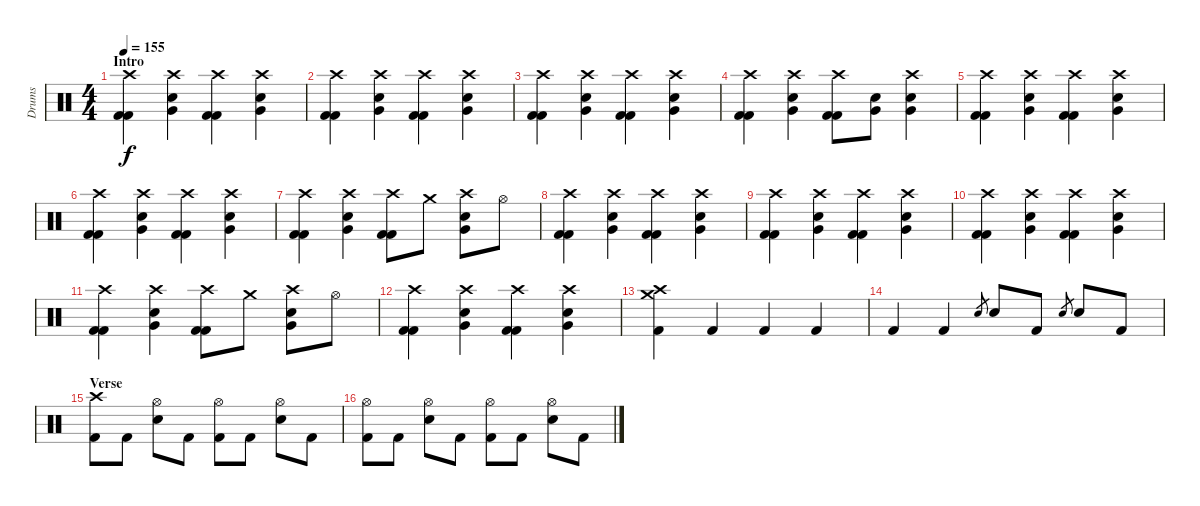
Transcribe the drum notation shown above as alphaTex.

\track ("Drums" "Drums") {instrument percussion}
\staff {score}
\articulation defaults
\ts (4 4)
\section ("" "Intro")
\tempo 155
\clef neutral
\ks c
("Crash high (hit)" "Kick (hit) 2" "Kick (hit) 2").4{dy f} ("Crash high (hit)" "Very Low Tom (hit)" "Electric Snare (hit)").4 ("Crash high (hit)" "Kick (hit) 2" "Kick (hit) 2").4 ("Crash high (hit)" "Very Low Tom (hit)" "Electric Snare (hit)").4 |
("Crash high (hit)" "Kick (hit) 2" "Kick (hit) 2").4 ("Crash high (hit)" "Very Low Tom (hit)" "Electric Snare (hit)").4 ("Crash high (hit)" "Kick (hit) 2" "Kick (hit) 2").4 ("Crash high (hit)" "Very Low Tom (hit)" "Electric Snare (hit)").4 |
("Crash high (hit)" "Kick (hit) 2" "Kick (hit) 2").4 ("Crash high (hit)" "Very Low Tom (hit)" "Electric Snare (hit)").4 ("Crash high (hit)" "Kick (hit) 2" "Kick (hit) 2").4 ("Crash high (hit)" "Very Low Tom (hit)" "Electric Snare (hit)").4 |
("Crash high (hit)" "Kick (hit) 2" "Kick (hit) 2").4 ("Crash high (hit)" "Very Low Tom (hit)" "Electric Snare (hit)").4 ("Crash high (hit)" "Kick (hit) 2" "Kick (hit) 2").8 ("Very Low Tom (hit)" "Electric Snare (hit)").8 ("Crash high (hit)" "Very Low Tom (hit)" "Electric Snare (hit)").4 |
("Crash high (hit)" "Kick (hit) 2" "Kick (hit) 2").4 ("Crash high (hit)" "Very Low Tom (hit)" "Electric Snare (hit)").4 ("Crash high (hit)" "Kick (hit) 2" "Kick (hit) 2").4 ("Crash high (hit)" "Very Low Tom (hit)" "Electric Snare (hit)").4 |
("Crash high (hit)" "Kick (hit) 2" "Kick (hit) 2").4 ("Crash high (hit)" "Very Low Tom (hit)" "Electric Snare (hit)").4 ("Crash high (hit)" "Kick (hit) 2" "Kick (hit) 2").4 ("Crash high (hit)" "Very Low Tom (hit)" "Electric Snare (hit)").4 |
("Crash high (hit)" "Kick (hit) 2" "Kick (hit) 2").4 ("Crash high (hit)" "Very Low Tom (hit)" "Electric Snare (hit)").4 ("Crash high (hit)" "Kick (hit) 2" "Kick (hit) 2").8 "Crash medium (hit)".8 ("Crash high (hit)" "Very Low Tom (hit)" "Electric Snare (hit)").8 "Hi-Hat (open)".8 |
("Crash high (hit)" "Kick (hit) 2" "Kick (hit) 2").4 ("Crash high (hit)" "Very Low Tom (hit)" "Electric Snare (hit)").4 ("Crash high (hit)" "Kick (hit) 2" "Kick (hit) 2").4 ("Crash high (hit)" "Very Low Tom (hit)" "Electric Snare (hit)").4 |
("Crash high (hit)" "Kick (hit) 2" "Kick (hit) 2").4 ("Crash high (hit)" "Very Low Tom (hit)" "Electric Snare (hit)").4 ("Crash high (hit)" "Kick (hit) 2" "Kick (hit) 2").4 ("Crash high (hit)" "Very Low Tom (hit)" "Electric Snare (hit)").4 |
("Crash high (hit)" "Kick (hit) 2" "Kick (hit) 2").4 ("Crash high (hit)" "Very Low Tom (hit)" "Electric Snare (hit)").4 ("Crash high (hit)" "Kick (hit) 2" "Kick (hit) 2").4 ("Crash high (hit)" "Very Low Tom (hit)" "Electric Snare (hit)").4 |
("Crash high (hit)" "Kick (hit) 2" "Kick (hit) 2").4 ("Crash high (hit)" "Very Low Tom (hit)" "Electric Snare (hit)").4 ("Crash high (hit)" "Kick (hit) 2" "Kick (hit) 2").8 "Crash medium (hit)".8 ("Crash high (hit)" "Very Low Tom (hit)" "Electric Snare (hit)").8 "Hi-Hat (open)".8 |
("Crash high (hit)" "Kick (hit) 2" "Kick (hit) 2").4 ("Crash high (hit)" "Very Low Tom (hit)" "Electric Snare (hit)").4 ("Crash high (hit)" "Kick (hit) 2" "Kick (hit) 2").4 ("Crash high (hit)" "Very Low Tom (hit)" "Electric Snare (hit)").4 |
("Crash high (hit)" "Crash medium (hit)" "Kick (hit) 2").4 "Kick (hit) 2".4 "Kick (hit) 2".4 "Kick (hit) 2".4 |
"Kick (hit) 2".4 "Kick (hit) 2".4 "Electric Snare (hit)".8{gr} "Electric Snare (hit)".8 "Kick (hit) 2".8 "Electric Snare (hit)".8{gr} "Electric Snare (hit)".8 "Kick (hit) 2".8 |
\section ("" "Verse")
("Crash high (hit)" "Kick (hit) 2").8 "Kick (hit) 2".8 ("Hi-Hat (open)" "Electric Snare (hit)").8 "Kick (hit) 2".8 ("Hi-Hat (open)" "Kick (hit) 2").8 "Kick (hit) 2".8 ("Hi-Hat (open)" "Electric Snare (hit)").8 "Kick (hit) 2".8 |
("Hi-Hat (open)" "Kick (hit) 2").8 "Kick (hit) 2".8 ("Hi-Hat (open)" "Electric Snare (hit)").8 "Kick (hit) 2".8 ("Hi-Hat (open)" "Kick (hit) 2").8 "Kick (hit) 2".8 ("Hi-Hat (open)" "Electric Snare (hit)").8 "Kick (hit) 2".8
